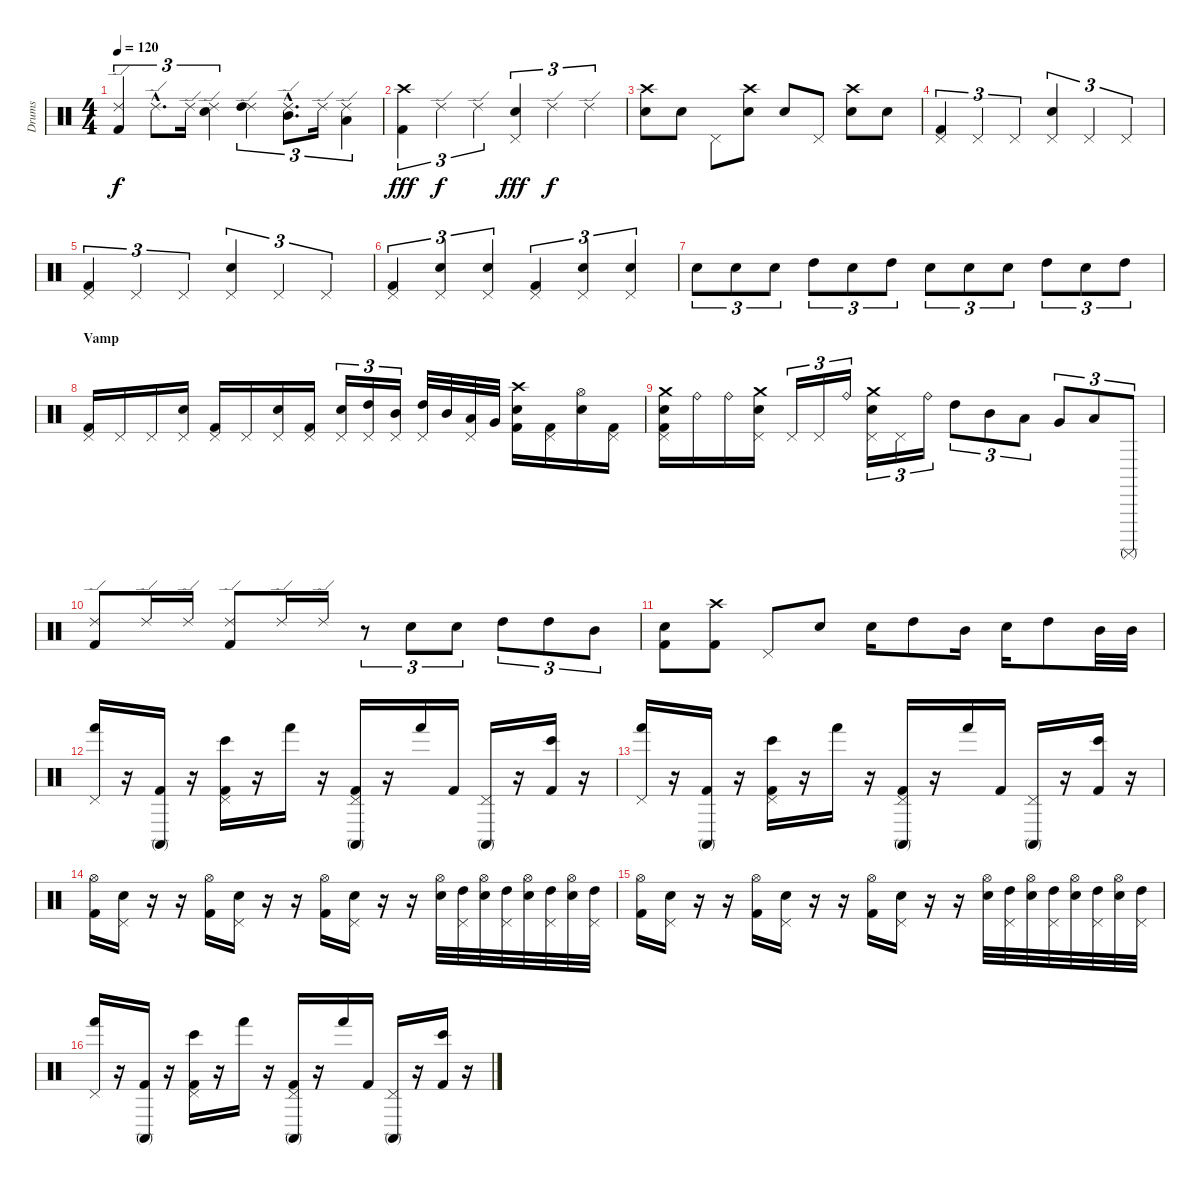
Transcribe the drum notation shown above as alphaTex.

\track ("Drums" "Drums") {instrument percussion}
\staff {score}
\articulation defaults
\ts (4 4)
\tempo 120
\clef neutral
\ks c
("Ride (edge) 2" "Kick (hit) 2").4{tu (3 2) dy f} "Ride (edge) 2"{hac}.8{d tu (3 2)} "Ride (edge) 2".16{tu (3 2)} ("Ride (edge) 2" "Snare (hit) 2").4{tu (3 2)} ("Ride (edge) 2" "High Tom (hit)").4{tu (3 2)} ("Ride (edge) 2"{hac} "Mid Tom (hit)"{hac}).8{d tu (3 2)} "Ride (edge) 2".16{tu (3 2)} ("Ride (edge) 2" "Low Tom (hit)").4{tu (3 2)} |
("Crash high (hit)" "Kick (hit) 2").4{tu (3 2) dy fff} "Ride (edge) 2".4{tu (3 2) dy f} "Ride (edge) 2".4{tu (3 2)} ("Pedal Hi-Hat (hit)" "Snare (hit) 2").4{tu (3 2) dy fff} "Ride (edge) 2".4{tu (3 2) dy f} "Ride (edge) 2".4{tu (3 2)} |
("Crash high (hit)" "Electric Snare (hit)").8 "Electric Snare (hit)".8 "Pedal Hi-Hat (hit)".8 ("Crash high (hit)" "Electric Snare (hit)").8 "Electric Snare (hit)".8 "Pedal Hi-Hat (hit)".8 ("Crash high (hit)" "Electric Snare (hit)").8 "Electric Snare (hit)".8 |
("Pedal Hi-Hat (hit)" "Kick (hit) 2").4{tu (3 2)} "Pedal Hi-Hat (hit)".4{tu (3 2)} "Pedal Hi-Hat (hit)".4{tu (3 2)} ("Pedal Hi-Hat (hit)" "Snare (hit) 2").4{tu (3 2)} "Pedal Hi-Hat (hit)".4{tu (3 2)} "Pedal Hi-Hat (hit)".4{tu (3 2)} |
("Pedal Hi-Hat (hit)" "Kick (hit) 2").4{tu (3 2)} "Pedal Hi-Hat (hit)".4{tu (3 2)} "Pedal Hi-Hat (hit)".4{tu (3 2)} ("Pedal Hi-Hat (hit)" "Snare (hit) 2").4{tu (3 2)} "Pedal Hi-Hat (hit)".4{tu (3 2)} "Pedal Hi-Hat (hit)".4{tu (3 2)} |
("Pedal Hi-Hat (hit)" "Kick (hit) 2").4{tu (3 2)} ("Pedal Hi-Hat (hit)" "Snare (hit) 2").4{tu (3 2)} ("Pedal Hi-Hat (hit)" "Snare (hit) 2").4{tu (3 2)} ("Pedal Hi-Hat (hit)" "Kick (hit) 2").4{tu (3 2)} ("Pedal Hi-Hat (hit)" "Snare (hit) 2").4{tu (3 2)} ("Pedal Hi-Hat (hit)" "Snare (hit) 2").4{tu (3 2)} |
"Electric Snare (hit)".8{tu (3 2)} "Electric Snare (hit)".8{tu (3 2)} "Electric Snare (hit)".8{tu (3 2)} "High Tom (hit)".8{tu (3 2)} "Electric Snare (hit)".8{tu (3 2)} "High Tom (hit)".8{tu (3 2)} "Electric Snare (hit)".8{tu (3 2)} "Electric Snare (hit)".8{tu (3 2)} "Electric Snare (hit)".8{tu (3 2)} "High Tom (hit)".8{tu (3 2)} "Electric Snare (hit)".8{tu (3 2)} "High Tom (hit)".8{tu (3 2)} |
\section ("" "Vamp")
("Pedal Hi-Hat (hit)" "Kick (hit) 2").16 "Pedal Hi-Hat (hit)".16 "Pedal Hi-Hat (hit)".16 ("Pedal Hi-Hat (hit)" "Electric Snare (hit)").16 ("Pedal Hi-Hat (hit)" "Kick (hit) 2").16 "Pedal Hi-Hat (hit)".16 ("Pedal Hi-Hat (hit)" "Electric Snare (hit)").16 ("Pedal Hi-Hat (hit)" "Kick (hit) 2").16 ("Pedal Hi-Hat (hit)" "Electric Snare (hit)").16{tu (3 2)} ("Pedal Hi-Hat (hit)" "High Tom (hit)").16{tu (3 2)} ("Pedal Hi-Hat (hit)" "Mid Tom (hit)").16{tu (3 2)} ("Pedal Hi-Hat (hit)" "High Tom (hit)").32 "Mid Tom (hit)".32 ("Pedal Hi-Hat (hit)" "Low Tom (hit)").32 "Very Low Tom (hit)".32 ("Crash high (hit)" "Electric Snare (hit)" "Kick (hit) 2").16 ("Pedal Hi-Hat (hit)" "Kick (hit) 2").16 ("Hi-Hat (open)" "Electric Snare (hit)").16 ("Pedal Hi-Hat (hit)" "Kick (hit) 2").16 |
("Crash medium (hit)" "Pedal Hi-Hat (hit)" "Electric Snare (hit)" "Kick (hit) 2").16 "Ride (bell)".16 "Ride (bell)".16 ("Crash medium (hit)" "Pedal Hi-Hat (hit)" "Electric Snare (hit)").16 "Pedal Hi-Hat (hit)".16{tu (3 2)} "Pedal Hi-Hat (hit)".16{tu (3 2)} "Ride (bell)".16{tu (3 2)} ("Crash medium (hit)" "Pedal Hi-Hat (hit)" "Electric Snare (hit)").16{tu (3 2)} "Pedal Hi-Hat (hit)".16{tu (3 2)} "Ride (bell)".16{tu (3 2)} "High Tom (hit)".8{tu (3 2)} "Mid Tom (hit)".8{tu (3 2)} "Low Tom (hit)".8{tu (3 2)} "Very Low Tom (hit)".8{tu (3 2)} "Low Floor Tom (hit)".8{tu (3 2)} "Surdo (mute)".8{tu (3 2)} |
("Ride (edge) 2" "Kick (hit) 2").8 "Ride (edge) 2".16 "Ride (edge) 2".16 ("Ride (edge) 2" "Kick (hit) 2").8 "Ride (edge) 2".16 "Ride (edge) 2".16 r.8{tu (3 2)} "Metronome (bell)".8{tu (3 2)} "Electric Snare (hit)".8{tu (3 2)} "High Tom (hit)".8{tu (3 2)} "High Tom (hit)".8{tu (3 2)} "Mid Tom (hit)".8{tu (3 2)} |
("Electric Snare (hit)" "Kick (hit) 2").8 ("Crash high (hit)" "Kick (hit) 2").8 "Pedal Hi-Hat (hit)".8 "Metronome (bell)".8 "Electric Snare (hit)".16 "High Tom (hit)".8 "Mid Tom (hit)".16 "Electric Snare (hit)".16 "High Tom (hit)".8 "Mid Tom (hit)".32 "Mid Tom (hit)".32 |
("Pedal Hi-Hat (hit)" "Hand (hit)").16 r.16 ("Conga high (mute)" "Kick (hit) 2").16 r.16 ("Pedal Hi-Hat (hit)" "Bongo High (hit)" "Kick (hit) 2").16 r.16 "Hand (hit)".16 r.16 ("Pedal Hi-Hat (hit)" "Conga high (mute)" "Kick (hit) 2").16 r.16 "Hand (hit)".16 "Kick (hit) 2".16 ("Pedal Hi-Hat (hit)" "Conga high (mute)").16 r.16 ("Bongo High (hit)" "Kick (hit) 2").16 r.16 |
("Pedal Hi-Hat (hit)" "Hand (hit)").16 r.16 ("Conga high (mute)" "Kick (hit) 2").16 r.16 ("Pedal Hi-Hat (hit)" "Bongo High (hit)" "Kick (hit) 2").16 r.16 "Hand (hit)".16 r.16 ("Pedal Hi-Hat (hit)" "Conga high (mute)" "Kick (hit) 2").16 r.16 "Hand (hit)".16 "Kick (hit) 2".16 ("Pedal Hi-Hat (hit)" "Conga high (mute)").16 r.16 ("Bongo High (hit)" "Kick (hit) 2").16 r.16 |
("Hi-Hat (open)" "Kick (hit) 2").16 ("Pedal Hi-Hat (hit)" "Electric Snare (hit)").16 r.16 r.16 ("Hi-Hat (open)" "Kick (hit) 2").16 ("Pedal Hi-Hat (hit)" "Electric Snare (hit)").16 r.16 r.16 ("Hi-Hat (open)" "Kick (hit) 2").16 ("Pedal Hi-Hat (hit)" "Electric Snare (hit)").16 r.16 r.16 ("Hi-Hat (open)" "Electric Snare (hit)").32 ("Pedal Hi-Hat (hit)" "High Tom (hit)").32 ("Hi-Hat (open)" "Electric Snare (hit)").32 ("Pedal Hi-Hat (hit)" "High Tom (hit)").32 ("Hi-Hat (open)" "Electric Snare (hit)").32 ("Pedal Hi-Hat (hit)" "High Tom (hit)").32 ("Hi-Hat (open)" "Electric Snare (hit)").32 ("Pedal Hi-Hat (hit)" "High Tom (hit)").32 |
("Hi-Hat (open)" "Kick (hit) 2").16 ("Pedal Hi-Hat (hit)" "Electric Snare (hit)").16 r.16 r.16 ("Hi-Hat (open)" "Kick (hit) 2").16 ("Pedal Hi-Hat (hit)" "Electric Snare (hit)").16 r.16 r.16 ("Hi-Hat (open)" "Kick (hit) 2").16 ("Pedal Hi-Hat (hit)" "Electric Snare (hit)").16 r.16 r.16 ("Hi-Hat (open)" "Electric Snare (hit)").32 ("Pedal Hi-Hat (hit)" "High Tom (hit)").32 ("Hi-Hat (open)" "Electric Snare (hit)").32 ("Pedal Hi-Hat (hit)" "High Tom (hit)").32 ("Hi-Hat (open)" "Electric Snare (hit)").32 ("Pedal Hi-Hat (hit)" "High Tom (hit)").32 ("Hi-Hat (open)" "Electric Snare (hit)").32 ("Pedal Hi-Hat (hit)" "High Tom (hit)").32 |
("Pedal Hi-Hat (hit)" "Hand (hit)").16 r.16 ("Conga high (mute)" "Kick (hit) 2").16 r.16 ("Pedal Hi-Hat (hit)" "Bongo High (hit)" "Kick (hit) 2").16 r.16 "Hand (hit)".16 r.16 ("Pedal Hi-Hat (hit)" "Conga high (mute)" "Kick (hit) 2").16 r.16 "Hand (hit)".16 "Kick (hit) 2".16 ("Pedal Hi-Hat (hit)" "Conga high (mute)").16 r.16 ("Bongo High (hit)" "Kick (hit) 2").16 r.16
